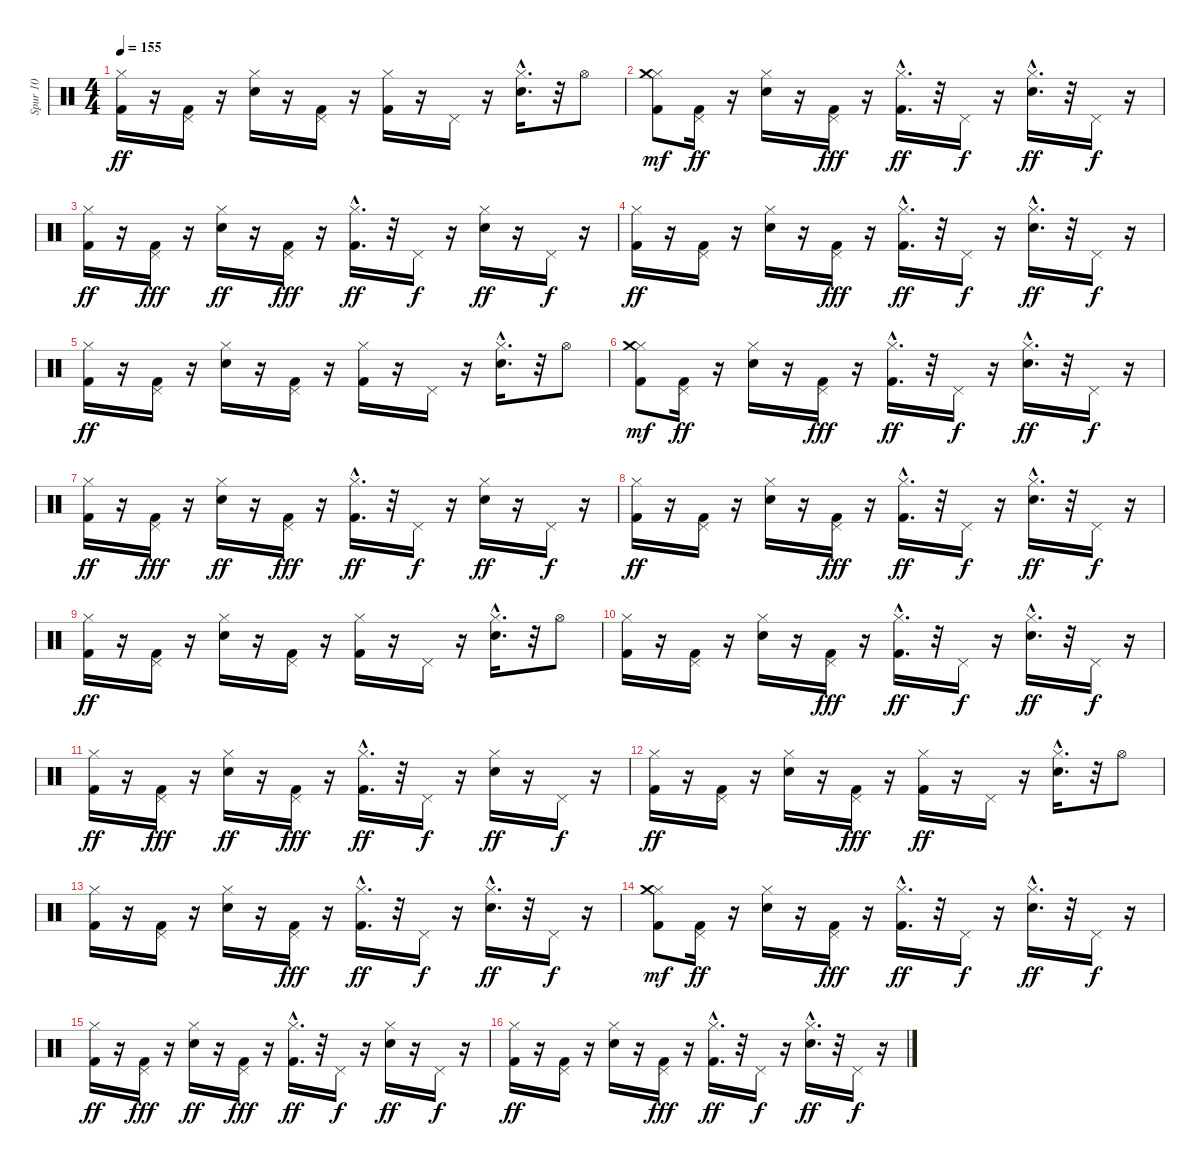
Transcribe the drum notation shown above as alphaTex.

\track ("Spur 10" "Spur 10") {instrument percussion}
\staff {score}
\articulation defaults
\ts (4 4)
\tempo 155
\clef neutral
\ks c
("Kick (hit) 2" "Hi-Hat (closed)").16{dy ff} r.16 ("Kick (hit) 2" "Pedal Hi-Hat (hit)").16 r.16 ("Snare (hit) 2" "Hi-Hat (closed)").16 r.16 ("Kick (hit) 2" "Pedal Hi-Hat (hit)").16 r.16 ("Kick (hit) 2" "Hi-Hat (closed)").16 r.16 "Pedal Hi-Hat (hit)".16 r.16 ("Snare (hit) 2"{hac} "Hi-Hat (closed)").16{d} r.32 "Hi-Hat (open)".8 |
("Kick (hit) 2" "Hi-Hat (closed)" "Crash medium (hit)").8{dy mf} ("Kick (hit) 2" "Pedal Hi-Hat (hit)").16{dy ff} r.16 ("Snare (hit) 2" "Hi-Hat (closed)").16 r.16 ("Kick (hit) 2" "Pedal Hi-Hat (hit)").16{dy fff} r.16 ("Kick (hit) 2"{hac} "Hi-Hat (closed)").16{d dy ff} r.32 "Pedal Hi-Hat (hit)".16{dy f} r.16 ("Snare (hit) 2"{hac} "Hi-Hat (closed)").16{d dy ff} r.32 "Pedal Hi-Hat (hit)".16{dy f} r.16 |
("Kick (hit) 2" "Hi-Hat (closed)").16{dy ff} r.16 ("Kick (hit) 2" "Pedal Hi-Hat (hit)").16{dy fff} r.16 ("Snare (hit) 2" "Hi-Hat (closed)").16{dy ff} r.16 ("Kick (hit) 2" "Pedal Hi-Hat (hit)").16{dy fff} r.16 ("Kick (hit) 2"{hac} "Hi-Hat (closed)").16{d dy ff} r.32 "Pedal Hi-Hat (hit)".16{dy f} r.16 ("Snare (hit) 2" "Hi-Hat (closed)").16{dy ff} r.16 "Pedal Hi-Hat (hit)".16{dy f} r.16 |
("Kick (hit) 2" "Hi-Hat (closed)").16{dy ff} r.16 ("Kick (hit) 2" "Pedal Hi-Hat (hit)").16 r.16 ("Snare (hit) 2" "Hi-Hat (closed)").16 r.16 ("Kick (hit) 2" "Pedal Hi-Hat (hit)").16{dy fff} r.16 ("Kick (hit) 2"{hac} "Hi-Hat (closed)").16{d dy ff} r.32 "Pedal Hi-Hat (hit)".16{dy f} r.16 ("Snare (hit) 2"{hac} "Hi-Hat (closed)").16{d dy ff} r.32 "Pedal Hi-Hat (hit)".16{dy f} r.16 |
("Kick (hit) 2" "Hi-Hat (closed)").16{dy ff} r.16 ("Kick (hit) 2" "Pedal Hi-Hat (hit)").16 r.16 ("Snare (hit) 2" "Hi-Hat (closed)").16 r.16 ("Kick (hit) 2" "Pedal Hi-Hat (hit)").16 r.16 ("Kick (hit) 2" "Hi-Hat (closed)").16 r.16 "Pedal Hi-Hat (hit)".16 r.16 ("Snare (hit) 2"{hac} "Hi-Hat (closed)").16{d} r.32 "Hi-Hat (open)".8 |
("Kick (hit) 2" "Hi-Hat (closed)" "Crash medium (hit)").8{dy mf} ("Kick (hit) 2" "Pedal Hi-Hat (hit)").16{dy ff} r.16 ("Snare (hit) 2" "Hi-Hat (closed)").16 r.16 ("Kick (hit) 2" "Pedal Hi-Hat (hit)").16{dy fff} r.16 ("Kick (hit) 2"{hac} "Hi-Hat (closed)").16{d dy ff} r.32 "Pedal Hi-Hat (hit)".16{dy f} r.16 ("Snare (hit) 2"{hac} "Hi-Hat (closed)").16{d dy ff} r.32 "Pedal Hi-Hat (hit)".16{dy f} r.16 |
("Kick (hit) 2" "Hi-Hat (closed)").16{dy ff} r.16 ("Kick (hit) 2" "Pedal Hi-Hat (hit)").16{dy fff} r.16 ("Snare (hit) 2" "Hi-Hat (closed)").16{dy ff} r.16 ("Kick (hit) 2" "Pedal Hi-Hat (hit)").16{dy fff} r.16 ("Kick (hit) 2"{hac} "Hi-Hat (closed)").16{d dy ff} r.32 "Pedal Hi-Hat (hit)".16{dy f} r.16 ("Snare (hit) 2" "Hi-Hat (closed)").16{dy ff} r.16 "Pedal Hi-Hat (hit)".16{dy f} r.16 |
("Kick (hit) 2" "Hi-Hat (closed)").16{dy ff} r.16 ("Kick (hit) 2" "Pedal Hi-Hat (hit)").16 r.16 ("Snare (hit) 2" "Hi-Hat (closed)").16 r.16 ("Kick (hit) 2" "Pedal Hi-Hat (hit)").16{dy fff} r.16 ("Kick (hit) 2"{hac} "Hi-Hat (closed)").16{d dy ff} r.32 "Pedal Hi-Hat (hit)".16{dy f} r.16 ("Snare (hit) 2"{hac} "Hi-Hat (closed)").16{d dy ff} r.32 "Pedal Hi-Hat (hit)".16{dy f} r.16 |
("Kick (hit) 2" "Hi-Hat (closed)").16{dy ff} r.16 ("Kick (hit) 2" "Pedal Hi-Hat (hit)").16 r.16 ("Snare (hit) 2" "Hi-Hat (closed)").16 r.16 ("Kick (hit) 2" "Pedal Hi-Hat (hit)").16 r.16 ("Kick (hit) 2" "Hi-Hat (closed)").16 r.16 "Pedal Hi-Hat (hit)".16 r.16 ("Snare (hit) 2"{hac} "Hi-Hat (closed)").16{d} r.32 "Hi-Hat (open)".8 |
("Kick (hit) 2" "Hi-Hat (closed)").16 r.16 ("Kick (hit) 2" "Pedal Hi-Hat (hit)").16 r.16 ("Snare (hit) 2" "Hi-Hat (closed)").16 r.16 ("Kick (hit) 2" "Pedal Hi-Hat (hit)").16{dy fff} r.16 ("Kick (hit) 2"{hac} "Hi-Hat (closed)").16{d dy ff} r.32 "Pedal Hi-Hat (hit)".16{dy f} r.16 ("Snare (hit) 2"{hac} "Hi-Hat (closed)").16{d dy ff} r.32 "Pedal Hi-Hat (hit)".16{dy f} r.16 |
("Kick (hit) 2" "Hi-Hat (closed)").16{dy ff} r.16 ("Kick (hit) 2" "Pedal Hi-Hat (hit)").16{dy fff} r.16 ("Snare (hit) 2" "Hi-Hat (closed)").16{dy ff} r.16 ("Kick (hit) 2" "Pedal Hi-Hat (hit)").16{dy fff} r.16 ("Kick (hit) 2"{hac} "Hi-Hat (closed)").16{d dy ff} r.32 "Pedal Hi-Hat (hit)".16{dy f} r.16 ("Snare (hit) 2" "Hi-Hat (closed)").16{dy ff} r.16 "Pedal Hi-Hat (hit)".16{dy f} r.16 |
("Kick (hit) 2" "Hi-Hat (closed)").16{dy ff} r.16 ("Kick (hit) 2" "Pedal Hi-Hat (hit)").16 r.16 ("Snare (hit) 2" "Hi-Hat (closed)").16 r.16 ("Kick (hit) 2" "Pedal Hi-Hat (hit)").16{dy fff} r.16 ("Kick (hit) 2" "Hi-Hat (closed)").16{dy ff} r.16 "Pedal Hi-Hat (hit)".16 r.16 ("Snare (hit) 2"{hac} "Hi-Hat (closed)").16{d} r.32 "Hi-Hat (open)".8 |
("Kick (hit) 2" "Hi-Hat (closed)").16 r.16 ("Kick (hit) 2" "Pedal Hi-Hat (hit)").16 r.16 ("Snare (hit) 2" "Hi-Hat (closed)").16 r.16 ("Kick (hit) 2" "Pedal Hi-Hat (hit)").16{dy fff} r.16 ("Kick (hit) 2"{hac} "Hi-Hat (closed)").16{d dy ff} r.32 "Pedal Hi-Hat (hit)".16{dy f} r.16 ("Snare (hit) 2"{hac} "Hi-Hat (closed)").16{d dy ff} r.32 "Pedal Hi-Hat (hit)".16{dy f} r.16 |
("Kick (hit) 2" "Hi-Hat (closed)" "Crash medium (hit)").8{dy mf} ("Kick (hit) 2" "Pedal Hi-Hat (hit)").16{dy ff} r.16 ("Snare (hit) 2" "Hi-Hat (closed)").16 r.16 ("Kick (hit) 2" "Pedal Hi-Hat (hit)").16{dy fff} r.16 ("Kick (hit) 2"{hac} "Hi-Hat (closed)").16{d dy ff} r.32 "Pedal Hi-Hat (hit)".16{dy f} r.16 ("Snare (hit) 2"{hac} "Hi-Hat (closed)").16{d dy ff} r.32 "Pedal Hi-Hat (hit)".16{dy f} r.16 |
("Kick (hit) 2" "Hi-Hat (closed)").16{dy ff} r.16 ("Kick (hit) 2" "Pedal Hi-Hat (hit)").16{dy fff} r.16 ("Snare (hit) 2" "Hi-Hat (closed)").16{dy ff} r.16 ("Kick (hit) 2" "Pedal Hi-Hat (hit)").16{dy fff} r.16 ("Kick (hit) 2"{hac} "Hi-Hat (closed)").16{d dy ff} r.32 "Pedal Hi-Hat (hit)".16{dy f} r.16 ("Snare (hit) 2" "Hi-Hat (closed)").16{dy ff} r.16 "Pedal Hi-Hat (hit)".16{dy f} r.16 |
("Kick (hit) 2" "Hi-Hat (closed)").16{dy ff} r.16 ("Kick (hit) 2" "Pedal Hi-Hat (hit)").16 r.16 ("Snare (hit) 2" "Hi-Hat (closed)").16 r.16 ("Kick (hit) 2" "Pedal Hi-Hat (hit)").16{dy fff} r.16 ("Kick (hit) 2"{hac} "Hi-Hat (closed)").16{d dy ff} r.32 "Pedal Hi-Hat (hit)".16{dy f} r.16 ("Snare (hit) 2"{hac} "Hi-Hat (closed)").16{d dy ff} r.32 "Pedal Hi-Hat (hit)".16{dy f} r.16
